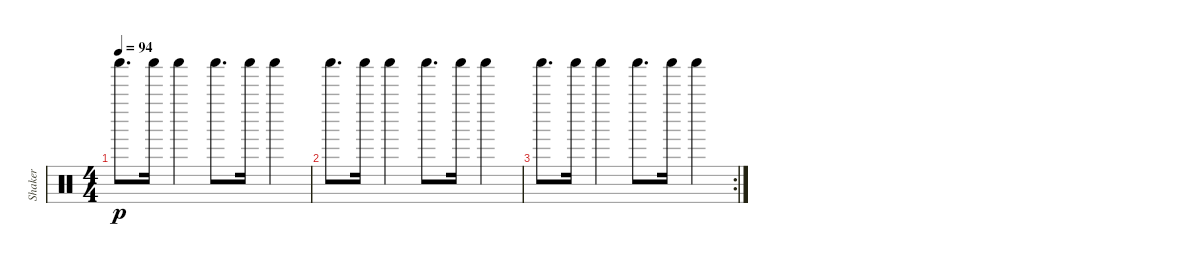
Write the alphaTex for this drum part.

\track ("Shaker" "Shaker") {instrument percussion}
\staff {score}
\articulation defaults
\ts (4 4)
\tempo 94
\clef neutral
\ks c "Shaker (hit)".8{d dy p} "Shaker (hit)".16 "Shaker (hit)".4 "Shaker (hit)".8{d} "Shaker (hit)".16 "Shaker (hit)".4
|
"Shaker (hit)".8{d} "Shaker (hit)".16 "Shaker (hit)".4 "Shaker (hit)".8{d} "Shaker (hit)".16 "Shaker (hit)".4 |
\rc 2 "Shaker (hit)".8{d} "Shaker (hit)".16 "Shaker (hit)".4 "Shaker (hit)".8{d} "Shaker (hit)".16 "Shaker (hit)".4
